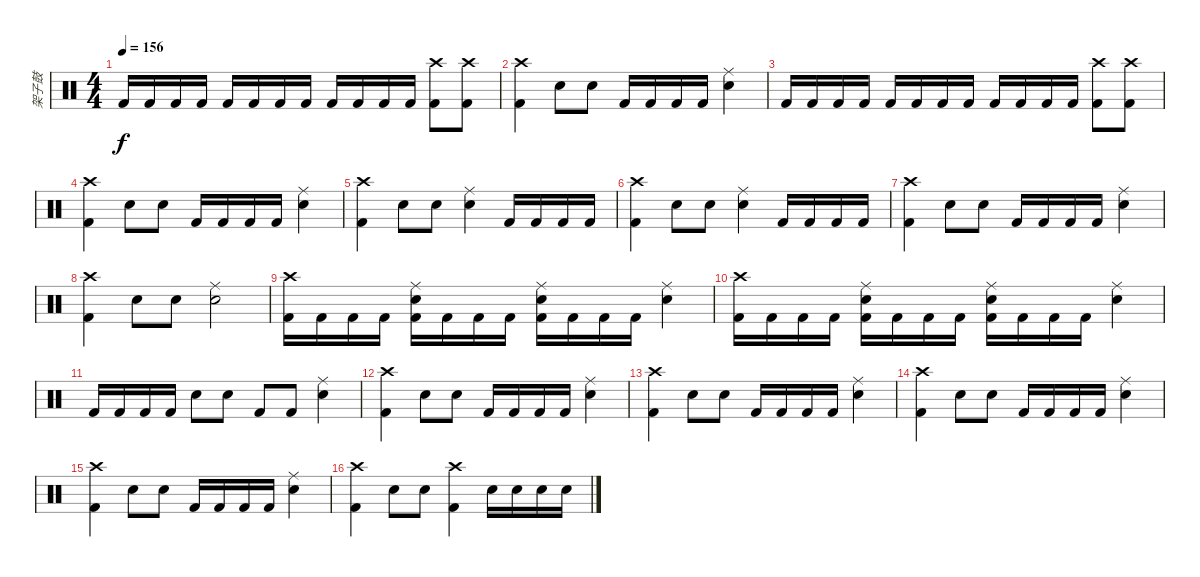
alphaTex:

\track ("架子鼓" "架子鼓") {instrument percussion}
\staff {score}
\articulation defaults
\ts (4 4)
\tempo 156
\clef neutral
\ks c "Kick (hit) 2".16{dy f} "Kick (hit) 2".16 "Kick (hit) 2".16 "Kick (hit) 2".16 "Kick (hit) 2".16 "Kick (hit) 2".16 "Kick (hit) 2".16 "Kick (hit) 2".16 "Kick (hit) 2".16 "Kick (hit) 2".16 "Kick (hit) 2".16 "Kick (hit) 2".16
("Kick (hit) 2" "Crash high (hit)").8 ("Kick (hit) 2" "Crash high (hit)").8 |
("Kick (hit) 2" "Crash high (hit)").4 "Snare (hit) 2".8 "Snare (hit) 2".8 "Kick (hit) 2".16 "Kick (hit) 2".16 "Kick (hit) 2".16 "Kick (hit) 2".16 ("Electric Snare (hit)" "Ride (middle)").4 |
"Kick (hit) 2".16 "Kick (hit) 2".16 "Kick (hit) 2".16 "Kick (hit) 2".16 "Kick (hit) 2".16 "Kick (hit) 2".16 "Kick (hit) 2".16 "Kick (hit) 2".16 "Kick (hit) 2".16 "Kick (hit) 2".16 "Kick (hit) 2".16 "Kick (hit) 2".16 ("Kick (hit) 2" "Crash high (hit)").8 ("Kick (hit) 2" "Crash high (hit)").8 |
("Kick (hit) 2" "Crash high (hit)").4 "Snare (hit) 2".8 "Snare (hit) 2".8 "Kick (hit) 2".16 "Kick (hit) 2".16 "Kick (hit) 2".16 "Kick (hit) 2".16 ("Electric Snare (hit)" "Ride (middle)").4 |
("Kick (hit) 2" "Crash high (hit)").4 "Snare (hit) 2".8 "Snare (hit) 2".8 ("Electric Snare (hit)" "Ride (middle)").4 "Kick (hit) 2".16 "Kick (hit) 2".16 "Kick (hit) 2".16 "Kick (hit) 2".16 |
("Kick (hit) 2" "Crash high (hit)").4 "Snare (hit) 2".8 "Snare (hit) 2".8 ("Electric Snare (hit)" "Ride (middle)").4 "Kick (hit) 2".16 "Kick (hit) 2".16 "Kick (hit) 2".16 "Kick (hit) 2".16 |
("Kick (hit) 2" "Crash high (hit)").4 "Snare (hit) 2".8 "Snare (hit) 2".8 "Kick (hit) 2".16 "Kick (hit) 2".16 "Kick (hit) 2".16 "Kick (hit) 2".16 ("Electric Snare (hit)" "Ride (middle)").4 |
("Kick (hit) 2" "Crash high (hit)").4 "Snare (hit) 2".8 "Snare (hit) 2".8 ("Electric Snare (hit)" "Ride (middle)").2 |
("Kick (hit) 2" "Crash high (hit)").16 "Kick (hit) 2".16 "Kick (hit) 2".16 "Kick (hit) 2".16 ("Kick (hit) 2" "Snare (hit) 2" "Ride (middle)").16 "Kick (hit) 2".16 "Kick (hit) 2".16 "Kick (hit) 2".16 ("Kick (hit) 2" "Snare (hit) 2" "Ride (middle)").16 "Kick (hit) 2".16 "Kick (hit) 2".16 "Kick (hit) 2".16 ("Electric Snare (hit)" "Ride (middle)").4 |
("Kick (hit) 2" "Crash high (hit)").16 "Kick (hit) 2".16 "Kick (hit) 2".16 "Kick (hit) 2".16 ("Kick (hit) 2" "Snare (hit) 2" "Ride (middle)").16 "Kick (hit) 2".16 "Kick (hit) 2".16 "Kick (hit) 2".16 ("Kick (hit) 2" "Snare (hit) 2" "Ride (middle)").16 "Kick (hit) 2".16 "Kick (hit) 2".16 "Kick (hit) 2".16 ("Electric Snare (hit)" "Ride (middle)").4 |
"Kick (hit) 2".16 "Kick (hit) 2".16 "Kick (hit) 2".16 "Kick (hit) 2".16 "Snare (hit) 2".8 "Snare (hit) 2".8 "Kick (hit) 2".8 "Kick (hit) 2".8 ("Electric Snare (hit)" "Ride (middle)").4 |
("Kick (hit) 2" "Crash high (hit)").4 "Snare (hit) 2".8 "Snare (hit) 2".8 "Kick (hit) 2".16 "Kick (hit) 2".16 "Kick (hit) 2".16 "Kick (hit) 2".16 ("Electric Snare (hit)" "Ride (middle)").4 |
("Kick (hit) 2" "Crash high (hit)").4 "Snare (hit) 2".8 "Snare (hit) 2".8 "Kick (hit) 2".16 "Kick (hit) 2".16 "Kick (hit) 2".16 "Kick (hit) 2".16 ("Electric Snare (hit)" "Ride (middle)").4 |
("Kick (hit) 2" "Crash high (hit)").4 "Snare (hit) 2".8 "Snare (hit) 2".8 "Kick (hit) 2".16 "Kick (hit) 2".16 "Kick (hit) 2".16 "Kick (hit) 2".16 ("Electric Snare (hit)" "Ride (middle)").4 |
("Kick (hit) 2" "Crash high (hit)").4 "Snare (hit) 2".8 "Snare (hit) 2".8 "Kick (hit) 2".16 "Kick (hit) 2".16 "Kick (hit) 2".16 "Kick (hit) 2".16 ("Electric Snare (hit)" "Ride (middle)").4 |
("Kick (hit) 2" "Crash high (hit)").4 "Snare (hit) 2".8 "Snare (hit) 2".8 ("Kick (hit) 2" "Crash high (hit)").4 "Electric Snare (hit)".16 "Electric Snare (hit)".16 "Electric Snare (hit)".16 "Electric Snare (hit)".16
